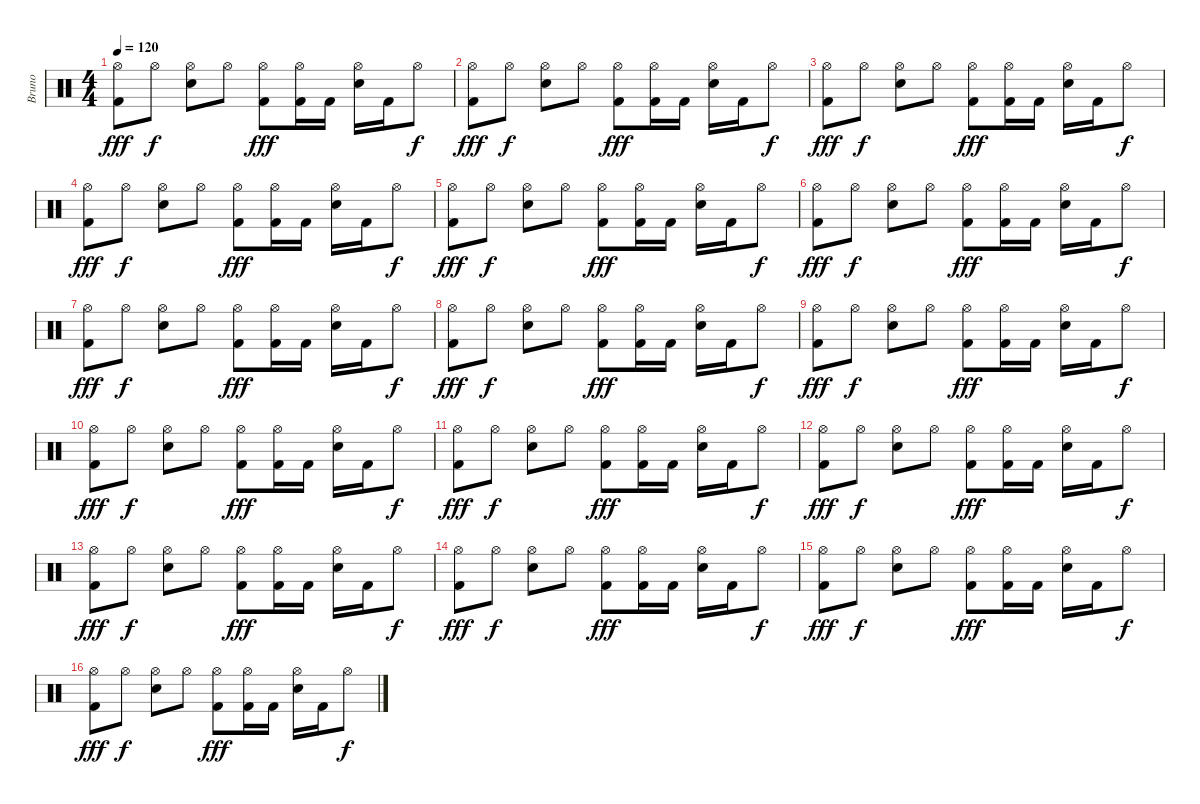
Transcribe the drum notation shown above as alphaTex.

\track ("Bruno" "Bruno") {instrument percussion}
\staff {score}
\articulation defaults
\ts (4 4)
\tempo 120
\clef neutral
\ks c
("Hi-Hat (open)" "Kick (hit) 2").8{dy fff} "Hi-Hat (open)".8{dy f} ("Hi-Hat (open)" "Snare (hit) 2").8 "Hi-Hat (open)".8 ("Hi-Hat (open)" "Kick (hit) 2").8{dy fff} ("Hi-Hat (open)" "Kick (hit) 2").16 "Kick (hit) 2".16 ("Hi-Hat (open)" "Snare (hit) 2").16 "Kick (hit) 2".16 "Hi-Hat (open)".8{dy f} |
("Hi-Hat (open)" "Kick (hit) 2").8{dy fff} "Hi-Hat (open)".8{dy f} ("Hi-Hat (open)" "Snare (hit) 2").8 "Hi-Hat (open)".8 ("Hi-Hat (open)" "Kick (hit) 2").8{dy fff} ("Hi-Hat (open)" "Kick (hit) 2").16 "Kick (hit) 2".16 ("Hi-Hat (open)" "Snare (hit) 2").16 "Kick (hit) 2".16 "Hi-Hat (open)".8{dy f} |
("Hi-Hat (open)" "Kick (hit) 2").8{dy fff} "Hi-Hat (open)".8{dy f} ("Hi-Hat (open)" "Snare (hit) 2").8 "Hi-Hat (open)".8 ("Hi-Hat (open)" "Kick (hit) 2").8{dy fff} ("Hi-Hat (open)" "Kick (hit) 2").16 "Kick (hit) 2".16 ("Hi-Hat (open)" "Snare (hit) 2").16 "Kick (hit) 2".16 "Hi-Hat (open)".8{dy f} |
("Hi-Hat (open)" "Kick (hit) 2").8{dy fff} "Hi-Hat (open)".8{dy f} ("Hi-Hat (open)" "Snare (hit) 2").8 "Hi-Hat (open)".8 ("Hi-Hat (open)" "Kick (hit) 2").8{dy fff} ("Hi-Hat (open)" "Kick (hit) 2").16 "Kick (hit) 2".16 ("Hi-Hat (open)" "Snare (hit) 2").16 "Kick (hit) 2".16 "Hi-Hat (open)".8{dy f} |
("Hi-Hat (open)" "Kick (hit) 2").8{dy fff} "Hi-Hat (open)".8{dy f} ("Hi-Hat (open)" "Snare (hit) 2").8 "Hi-Hat (open)".8 ("Hi-Hat (open)" "Kick (hit) 2").8{dy fff} ("Hi-Hat (open)" "Kick (hit) 2").16 "Kick (hit) 2".16 ("Hi-Hat (open)" "Snare (hit) 2").16 "Kick (hit) 2".16 "Hi-Hat (open)".8{dy f} |
("Hi-Hat (open)" "Kick (hit) 2").8{dy fff} "Hi-Hat (open)".8{dy f} ("Hi-Hat (open)" "Snare (hit) 2").8 "Hi-Hat (open)".8 ("Hi-Hat (open)" "Kick (hit) 2").8{dy fff} ("Hi-Hat (open)" "Kick (hit) 2").16 "Kick (hit) 2".16 ("Hi-Hat (open)" "Snare (hit) 2").16 "Kick (hit) 2".16 "Hi-Hat (open)".8{dy f} |
("Hi-Hat (open)" "Kick (hit) 2").8{dy fff} "Hi-Hat (open)".8{dy f} ("Hi-Hat (open)" "Snare (hit) 2").8 "Hi-Hat (open)".8 ("Hi-Hat (open)" "Kick (hit) 2").8{dy fff} ("Hi-Hat (open)" "Kick (hit) 2").16 "Kick (hit) 2".16 ("Hi-Hat (open)" "Snare (hit) 2").16 "Kick (hit) 2".16 "Hi-Hat (open)".8{dy f} |
("Hi-Hat (open)" "Kick (hit) 2").8{dy fff} "Hi-Hat (open)".8{dy f} ("Hi-Hat (open)" "Snare (hit) 2").8 "Hi-Hat (open)".8 ("Hi-Hat (open)" "Kick (hit) 2").8{dy fff} ("Hi-Hat (open)" "Kick (hit) 2").16 "Kick (hit) 2".16 ("Hi-Hat (open)" "Snare (hit) 2").16 "Kick (hit) 2".16 "Hi-Hat (open)".8{dy f} |
("Hi-Hat (open)" "Kick (hit) 2").8{dy fff} "Hi-Hat (open)".8{dy f} ("Hi-Hat (open)" "Snare (hit) 2").8 "Hi-Hat (open)".8 ("Hi-Hat (open)" "Kick (hit) 2").8{dy fff} ("Hi-Hat (open)" "Kick (hit) 2").16 "Kick (hit) 2".16 ("Hi-Hat (open)" "Snare (hit) 2").16 "Kick (hit) 2".16 "Hi-Hat (open)".8{dy f} |
("Hi-Hat (open)" "Kick (hit) 2").8{dy fff} "Hi-Hat (open)".8{dy f} ("Hi-Hat (open)" "Snare (hit) 2").8 "Hi-Hat (open)".8 ("Hi-Hat (open)" "Kick (hit) 2").8{dy fff} ("Hi-Hat (open)" "Kick (hit) 2").16 "Kick (hit) 2".16 ("Hi-Hat (open)" "Snare (hit) 2").16 "Kick (hit) 2".16 "Hi-Hat (open)".8{dy f} |
("Hi-Hat (open)" "Kick (hit) 2").8{dy fff} "Hi-Hat (open)".8{dy f} ("Hi-Hat (open)" "Snare (hit) 2").8 "Hi-Hat (open)".8 ("Hi-Hat (open)" "Kick (hit) 2").8{dy fff} ("Hi-Hat (open)" "Kick (hit) 2").16 "Kick (hit) 2".16 ("Hi-Hat (open)" "Snare (hit) 2").16 "Kick (hit) 2".16 "Hi-Hat (open)".8{dy f} |
("Hi-Hat (open)" "Kick (hit) 2").8{dy fff} "Hi-Hat (open)".8{dy f} ("Hi-Hat (open)" "Snare (hit) 2").8 "Hi-Hat (open)".8 ("Hi-Hat (open)" "Kick (hit) 2").8{dy fff} ("Hi-Hat (open)" "Kick (hit) 2").16 "Kick (hit) 2".16 ("Hi-Hat (open)" "Snare (hit) 2").16 "Kick (hit) 2".16 "Hi-Hat (open)".8{dy f} |
("Hi-Hat (open)" "Kick (hit) 2").8{dy fff} "Hi-Hat (open)".8{dy f} ("Hi-Hat (open)" "Snare (hit) 2").8 "Hi-Hat (open)".8 ("Hi-Hat (open)" "Kick (hit) 2").8{dy fff} ("Hi-Hat (open)" "Kick (hit) 2").16 "Kick (hit) 2".16 ("Hi-Hat (open)" "Snare (hit) 2").16 "Kick (hit) 2".16 "Hi-Hat (open)".8{dy f} |
("Hi-Hat (open)" "Kick (hit) 2").8{dy fff} "Hi-Hat (open)".8{dy f} ("Hi-Hat (open)" "Snare (hit) 2").8 "Hi-Hat (open)".8 ("Hi-Hat (open)" "Kick (hit) 2").8{dy fff} ("Hi-Hat (open)" "Kick (hit) 2").16 "Kick (hit) 2".16 ("Hi-Hat (open)" "Snare (hit) 2").16 "Kick (hit) 2".16 "Hi-Hat (open)".8{dy f} |
("Hi-Hat (open)" "Kick (hit) 2").8{dy fff} "Hi-Hat (open)".8{dy f} ("Hi-Hat (open)" "Snare (hit) 2").8 "Hi-Hat (open)".8 ("Hi-Hat (open)" "Kick (hit) 2").8{dy fff} ("Hi-Hat (open)" "Kick (hit) 2").16 "Kick (hit) 2".16 ("Hi-Hat (open)" "Snare (hit) 2").16 "Kick (hit) 2".16 "Hi-Hat (open)".8{dy f} |
("Hi-Hat (open)" "Kick (hit) 2").8{dy fff} "Hi-Hat (open)".8{dy f} ("Hi-Hat (open)" "Snare (hit) 2").8 "Hi-Hat (open)".8 ("Hi-Hat (open)" "Kick (hit) 2").8{dy fff} ("Hi-Hat (open)" "Kick (hit) 2").16 "Kick (hit) 2".16 ("Hi-Hat (open)" "Snare (hit) 2").16 "Kick (hit) 2".16 "Hi-Hat (open)".8{dy f}
